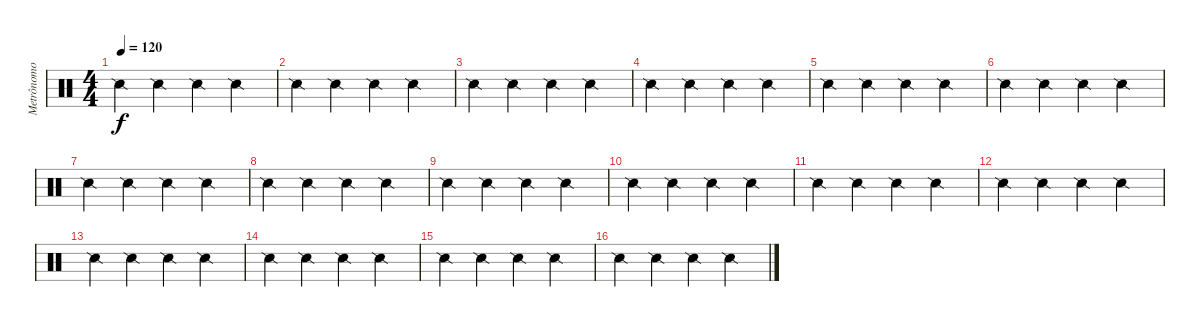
\track ("Metrônomo" "Metrônomo") {instrument percussion}
\staff {score}
\articulation defaults
\ts (4 4)
\tempo 120
\clef neutral
\ks c "Snare (side stick) 2".4{dy f} "Snare (side stick) 2".4 "Snare (side stick) 2".4 "Snare (side stick) 2".4
|
"Snare (side stick) 2".4 "Snare (side stick) 2".4 "Snare (side stick) 2".4 "Snare (side stick) 2".4 |
"Snare (side stick) 2".4 "Snare (side stick) 2".4 "Snare (side stick) 2".4 "Snare (side stick) 2".4 |
"Snare (side stick) 2".4 "Snare (side stick) 2".4 "Snare (side stick) 2".4 "Snare (side stick) 2".4 |
"Snare (side stick) 2".4 "Snare (side stick) 2".4 "Snare (side stick) 2".4 "Snare (side stick) 2".4 |
"Snare (side stick) 2".4 "Snare (side stick) 2".4 "Snare (side stick) 2".4 "Snare (side stick) 2".4 |
"Snare (side stick) 2".4 "Snare (side stick) 2".4 "Snare (side stick) 2".4 "Snare (side stick) 2".4 |
"Snare (side stick) 2".4 "Snare (side stick) 2".4 "Snare (side stick) 2".4 "Snare (side stick) 2".4 |
"Snare (side stick) 2".4 "Snare (side stick) 2".4 "Snare (side stick) 2".4 "Snare (side stick) 2".4 |
"Snare (side stick) 2".4 "Snare (side stick) 2".4 "Snare (side stick) 2".4 "Snare (side stick) 2".4 |
"Snare (side stick) 2".4 "Snare (side stick) 2".4 "Snare (side stick) 2".4 "Snare (side stick) 2".4 |
"Snare (side stick) 2".4 "Snare (side stick) 2".4 "Snare (side stick) 2".4 "Snare (side stick) 2".4 |
"Snare (side stick) 2".4 "Snare (side stick) 2".4 "Snare (side stick) 2".4 "Snare (side stick) 2".4 |
"Snare (side stick) 2".4 "Snare (side stick) 2".4 "Snare (side stick) 2".4 "Snare (side stick) 2".4 |
"Snare (side stick) 2".4 "Snare (side stick) 2".4 "Snare (side stick) 2".4 "Snare (side stick) 2".4 |
"Snare (side stick) 2".4 "Snare (side stick) 2".4 "Snare (side stick) 2".4 "Snare (side stick) 2".4
